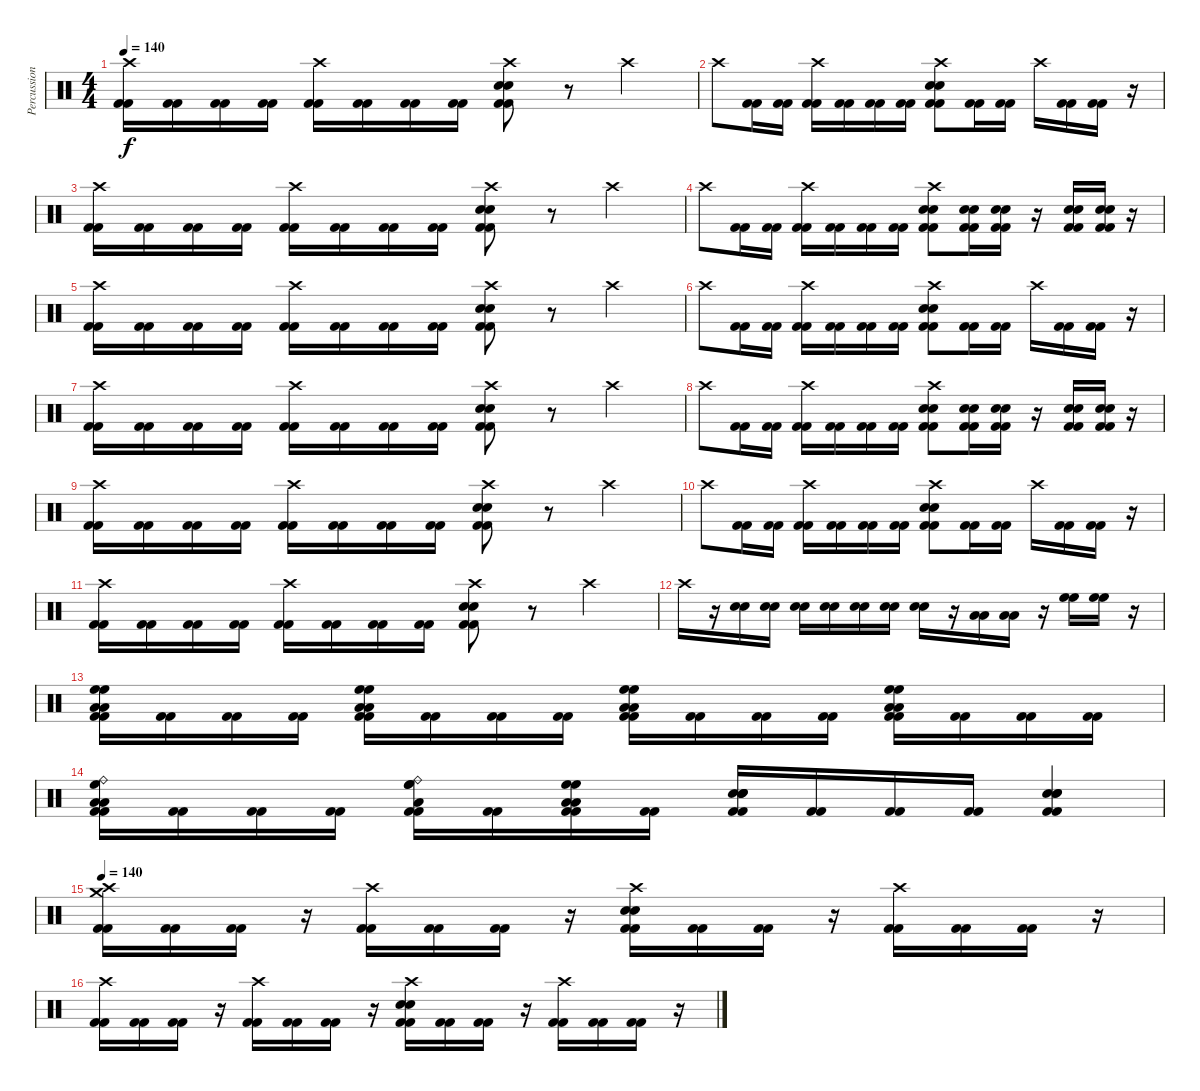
\track ("Percussions" "Percussion") {instrument percussion}
\staff {score}
\articulation defaults
\ts (4 4)
\tempo 140
\clef neutral
\ks c
("Crash high (hit)" "Kick (hit) 2" "Kick (hit) 2").16{dy f} ("Kick (hit) 2" "Kick (hit) 2").16 ("Kick (hit) 2" "Kick (hit) 2").16 ("Kick (hit) 2" "Kick (hit) 2").16 ("Crash high (hit)" "Kick (hit) 2" "Kick (hit) 2").16 ("Kick (hit) 2" "Kick (hit) 2").16 ("Kick (hit) 2" "Kick (hit) 2").16 ("Kick (hit) 2" "Kick (hit) 2").16 ("Crash high (hit)" "Electric Snare (hit)" "Electric Snare (hit)" "Kick (hit) 2" "Kick (hit) 2").8 r.8 "Crash high (hit)".4 |
"Crash high (hit)".8 ("Kick (hit) 2" "Kick (hit) 2").16 ("Kick (hit) 2" "Kick (hit) 2").16 ("Crash high (hit)" "Kick (hit) 2" "Kick (hit) 2").16 ("Kick (hit) 2" "Kick (hit) 2").16 ("Kick (hit) 2" "Kick (hit) 2").16 ("Kick (hit) 2" "Kick (hit) 2").16 ("Crash high (hit)" "Electric Snare (hit)" "Electric Snare (hit)" "Kick (hit) 2" "Kick (hit) 2").8 ("Kick (hit) 2" "Kick (hit) 2").16 ("Kick (hit) 2" "Kick (hit) 2").16 "Crash high (hit)".16 ("Kick (hit) 2" "Kick (hit) 2").16 ("Kick (hit) 2" "Kick (hit) 2").16 r.16 |
("Crash high (hit)" "Kick (hit) 2" "Kick (hit) 2").16 ("Kick (hit) 2" "Kick (hit) 2").16 ("Kick (hit) 2" "Kick (hit) 2").16 ("Kick (hit) 2" "Kick (hit) 2").16 ("Crash high (hit)" "Kick (hit) 2" "Kick (hit) 2").16 ("Kick (hit) 2" "Kick (hit) 2").16 ("Kick (hit) 2" "Kick (hit) 2").16 ("Kick (hit) 2" "Kick (hit) 2").16 ("Crash high (hit)" "Electric Snare (hit)" "Electric Snare (hit)" "Kick (hit) 2" "Kick (hit) 2").8 r.8 "Crash high (hit)".4 |
"Crash high (hit)".8 ("Kick (hit) 2" "Kick (hit) 2").16 ("Kick (hit) 2" "Kick (hit) 2").16 ("Crash high (hit)" "Kick (hit) 2" "Kick (hit) 2").16 ("Kick (hit) 2" "Kick (hit) 2").16 ("Kick (hit) 2" "Kick (hit) 2").16 ("Kick (hit) 2" "Kick (hit) 2").16 ("Crash high (hit)" "Electric Snare (hit)" "Electric Snare (hit)" "Kick (hit) 2" "Kick (hit) 2").8 ("Electric Snare (hit)" "Electric Snare (hit)" "Kick (hit) 2" "Kick (hit) 2").16 ("Electric Snare (hit)" "Electric Snare (hit)" "Kick (hit) 2" "Kick (hit) 2").16 r.16 ("Electric Snare (hit)" "Electric Snare (hit)" "Kick (hit) 2" "Kick (hit) 2").16 ("Electric Snare (hit)" "Electric Snare (hit)" "Kick (hit) 2" "Kick (hit) 2").16 r.16 |
("Crash high (hit)" "Kick (hit) 2" "Kick (hit) 2").16 ("Kick (hit) 2" "Kick (hit) 2").16 ("Kick (hit) 2" "Kick (hit) 2").16 ("Kick (hit) 2" "Kick (hit) 2").16 ("Crash high (hit)" "Kick (hit) 2" "Kick (hit) 2").16 ("Kick (hit) 2" "Kick (hit) 2").16 ("Kick (hit) 2" "Kick (hit) 2").16 ("Kick (hit) 2" "Kick (hit) 2").16 ("Crash high (hit)" "Electric Snare (hit)" "Electric Snare (hit)" "Kick (hit) 2" "Kick (hit) 2").8 r.8 "Crash high (hit)".4 |
"Crash high (hit)".8 ("Kick (hit) 2" "Kick (hit) 2").16 ("Kick (hit) 2" "Kick (hit) 2").16 ("Crash high (hit)" "Kick (hit) 2" "Kick (hit) 2").16 ("Kick (hit) 2" "Kick (hit) 2").16 ("Kick (hit) 2" "Kick (hit) 2").16 ("Kick (hit) 2" "Kick (hit) 2").16 ("Crash high (hit)" "Electric Snare (hit)" "Electric Snare (hit)" "Kick (hit) 2" "Kick (hit) 2").8 ("Kick (hit) 2" "Kick (hit) 2").16 ("Kick (hit) 2" "Kick (hit) 2").16 "Crash high (hit)".16 ("Kick (hit) 2" "Kick (hit) 2").16 ("Kick (hit) 2" "Kick (hit) 2").16 r.16 |
("Crash high (hit)" "Kick (hit) 2" "Kick (hit) 2").16 ("Kick (hit) 2" "Kick (hit) 2").16 ("Kick (hit) 2" "Kick (hit) 2").16 ("Kick (hit) 2" "Kick (hit) 2").16 ("Crash high (hit)" "Kick (hit) 2" "Kick (hit) 2").16 ("Kick (hit) 2" "Kick (hit) 2").16 ("Kick (hit) 2" "Kick (hit) 2").16 ("Kick (hit) 2" "Kick (hit) 2").16 ("Crash high (hit)" "Electric Snare (hit)" "Electric Snare (hit)" "Kick (hit) 2" "Kick (hit) 2").8 r.8 "Crash high (hit)".4 |
"Crash high (hit)".8 ("Kick (hit) 2" "Kick (hit) 2").16 ("Kick (hit) 2" "Kick (hit) 2").16 ("Crash high (hit)" "Kick (hit) 2" "Kick (hit) 2").16 ("Kick (hit) 2" "Kick (hit) 2").16 ("Kick (hit) 2" "Kick (hit) 2").16 ("Kick (hit) 2" "Kick (hit) 2").16 ("Crash high (hit)" "Electric Snare (hit)" "Electric Snare (hit)" "Kick (hit) 2" "Kick (hit) 2").8 ("Electric Snare (hit)" "Electric Snare (hit)" "Kick (hit) 2" "Kick (hit) 2").16 ("Electric Snare (hit)" "Electric Snare (hit)" "Kick (hit) 2" "Kick (hit) 2").16 r.16 ("Electric Snare (hit)" "Electric Snare (hit)" "Kick (hit) 2" "Kick (hit) 2").16 ("Electric Snare (hit)" "Electric Snare (hit)" "Kick (hit) 2" "Kick (hit) 2").16 r.16 |
("Crash high (hit)" "Kick (hit) 2" "Kick (hit) 2").16 ("Kick (hit) 2" "Kick (hit) 2").16 ("Kick (hit) 2" "Kick (hit) 2").16 ("Kick (hit) 2" "Kick (hit) 2").16 ("Crash high (hit)" "Kick (hit) 2" "Kick (hit) 2").16 ("Kick (hit) 2" "Kick (hit) 2").16 ("Kick (hit) 2" "Kick (hit) 2").16 ("Kick (hit) 2" "Kick (hit) 2").16 ("Crash high (hit)" "Electric Snare (hit)" "Electric Snare (hit)" "Kick (hit) 2" "Kick (hit) 2").8 r.8 "Crash high (hit)".4 |
"Crash high (hit)".8 ("Kick (hit) 2" "Kick (hit) 2").16 ("Kick (hit) 2" "Kick (hit) 2").16 ("Crash high (hit)" "Kick (hit) 2" "Kick (hit) 2").16 ("Kick (hit) 2" "Kick (hit) 2").16 ("Kick (hit) 2" "Kick (hit) 2").16 ("Kick (hit) 2" "Kick (hit) 2").16 ("Crash high (hit)" "Electric Snare (hit)" "Electric Snare (hit)" "Kick (hit) 2" "Kick (hit) 2").8 ("Kick (hit) 2" "Kick (hit) 2").16 ("Kick (hit) 2" "Kick (hit) 2").16 "Crash high (hit)".16 ("Kick (hit) 2" "Kick (hit) 2").16 ("Kick (hit) 2" "Kick (hit) 2").16 r.16 |
("Crash high (hit)" "Kick (hit) 2" "Kick (hit) 2").16 ("Kick (hit) 2" "Kick (hit) 2").16 ("Kick (hit) 2" "Kick (hit) 2").16 ("Kick (hit) 2" "Kick (hit) 2").16 ("Crash high (hit)" "Kick (hit) 2" "Kick (hit) 2").16 ("Kick (hit) 2" "Kick (hit) 2").16 ("Kick (hit) 2" "Kick (hit) 2").16 ("Kick (hit) 2" "Kick (hit) 2").16 ("Crash high (hit)" "Electric Snare (hit)" "Electric Snare (hit)" "Kick (hit) 2" "Kick (hit) 2").8 r.8 "Crash high (hit)".4 |
"Crash high (hit)".16 r.16 ("Electric Snare (hit)" "Electric Snare (hit)").16 ("Electric Snare (hit)" "Electric Snare (hit)").16 ("Electric Snare (hit)" "Electric Snare (hit)").16 ("Electric Snare (hit)" "Electric Snare (hit)").16 ("Electric Snare (hit)" "Electric Snare (hit)").16 ("Electric Snare (hit)" "Electric Snare (hit)").16 ("Electric Snare (hit)" "Electric Snare (hit)").16 r.16 ("Low Tom (hit)" "Low Tom (hit)").16 ("Low Tom (hit)" "Low Tom (hit)").16 r.16 ("High Floor Tom (hit)" "High Floor Tom (hit)").16 ("High Floor Tom (hit)" "High Floor Tom (hit)").16 r.16 |
("High Floor Tom (hit)" "Low Tom (hit)" "Low Tom (hit)" "High Floor Tom (hit)" "Kick (hit) 2" "Kick (hit) 2").16 ("Kick (hit) 2" "Kick (hit) 2").16 ("Kick (hit) 2" "Kick (hit) 2").16 ("Kick (hit) 2" "Kick (hit) 2").16 ("Low Tom (hit)" "Low Tom (hit)" "High Floor Tom (hit)" "High Floor Tom (hit)" "Kick (hit) 2" "Kick (hit) 2").16 ("Kick (hit) 2" "Kick (hit) 2").16 ("Kick (hit) 2" "Kick (hit) 2").16 ("Kick (hit) 2" "Kick (hit) 2").16 ("Low Tom (hit)" "Low Tom (hit)" "High Floor Tom (hit)" "High Floor Tom (hit)" "Kick (hit) 2" "Kick (hit) 2").16 ("Kick (hit) 2" "Kick (hit) 2").16 ("Kick (hit) 2" "Kick (hit) 2").16 ("Kick (hit) 2" "Kick (hit) 2").16 ("Low Tom (hit)" "Low Tom (hit)" "High Floor Tom (hit)" "High Floor Tom (hit)" "Kick (hit) 2" "Kick (hit) 2").16 ("Kick (hit) 2" "Kick (hit) 2").16 ("Kick (hit) 2" "Kick (hit) 2").16 ("Kick (hit) 2" "Kick (hit) 2").16 |
("Ride (bell)" "Low Tom (hit)" "Low Tom (hit)" "High Floor Tom (hit)" "Kick (hit) 2" "Kick (hit) 2").16 ("Kick (hit) 2" "Kick (hit) 2").16 ("Kick (hit) 2" "Kick (hit) 2").16 ("Kick (hit) 2" "Kick (hit) 2").16 ("Ride (bell)" "Low Tom (hit)" "High Floor Tom (hit)" "High Floor Tom (hit)" "Kick (hit) 2" "Kick (hit) 2").16 ("Kick (hit) 2" "Kick (hit) 2").16 ("Low Tom (hit)" "Low Tom (hit)" "High Floor Tom (hit)" "High Floor Tom (hit)" "Kick (hit) 2" "Kick (hit) 2").16 ("Kick (hit) 2" "Kick (hit) 2").16 ("Electric Snare (hit)" "Electric Snare (hit)" "Electric Snare (hit)" "Electric Snare (hit)" "Kick (hit) 2" "Kick (hit) 2").16 ("Kick (hit) 2" "Kick (hit) 2").16 ("Kick (hit) 2" "Kick (hit) 2").16 ("Kick (hit) 2" "Kick (hit) 2").16 ("Electric Snare (hit)" "Electric Snare (hit)" "Electric Snare (hit)" "Kick (hit) 2" "Kick (hit) 2").4 |
\tempo 140
("Crash high (hit)" "Crash medium (hit)" "Kick (hit) 2" "Kick (hit) 2").16 ("Kick (hit) 2" "Kick (hit) 2").16 ("Kick (hit) 2" "Kick (hit) 2").16 r.16 ("Crash high (hit)" "Kick (hit) 2" "Kick (hit) 2").16 ("Kick (hit) 2" "Kick (hit) 2").16 ("Kick (hit) 2" "Kick (hit) 2").16 r.16 ("Crash high (hit)" "Electric Snare (hit)" "Electric Snare (hit)" "Kick (hit) 2" "Kick (hit) 2").16 ("Kick (hit) 2" "Kick (hit) 2").16 ("Kick (hit) 2" "Kick (hit) 2").16 r.16 ("Crash high (hit)" "Kick (hit) 2" "Kick (hit) 2").16 ("Kick (hit) 2" "Kick (hit) 2").16 ("Kick (hit) 2" "Kick (hit) 2").16 r.16 |
("Crash high (hit)" "Kick (hit) 2" "Kick (hit) 2").16 ("Kick (hit) 2" "Kick (hit) 2").16 ("Kick (hit) 2" "Kick (hit) 2").16 r.16 ("Crash high (hit)" "Kick (hit) 2" "Kick (hit) 2").16 ("Kick (hit) 2" "Kick (hit) 2").16 ("Kick (hit) 2" "Kick (hit) 2").16 r.16 ("Crash high (hit)" "Electric Snare (hit)" "Electric Snare (hit)" "Kick (hit) 2" "Kick (hit) 2").16 ("Kick (hit) 2" "Kick (hit) 2").16 ("Kick (hit) 2" "Kick (hit) 2").16 r.16 ("Crash high (hit)" "Kick (hit) 2" "Kick (hit) 2").16 ("Kick (hit) 2" "Kick (hit) 2").16 ("Kick (hit) 2" "Kick (hit) 2").16 r.16
